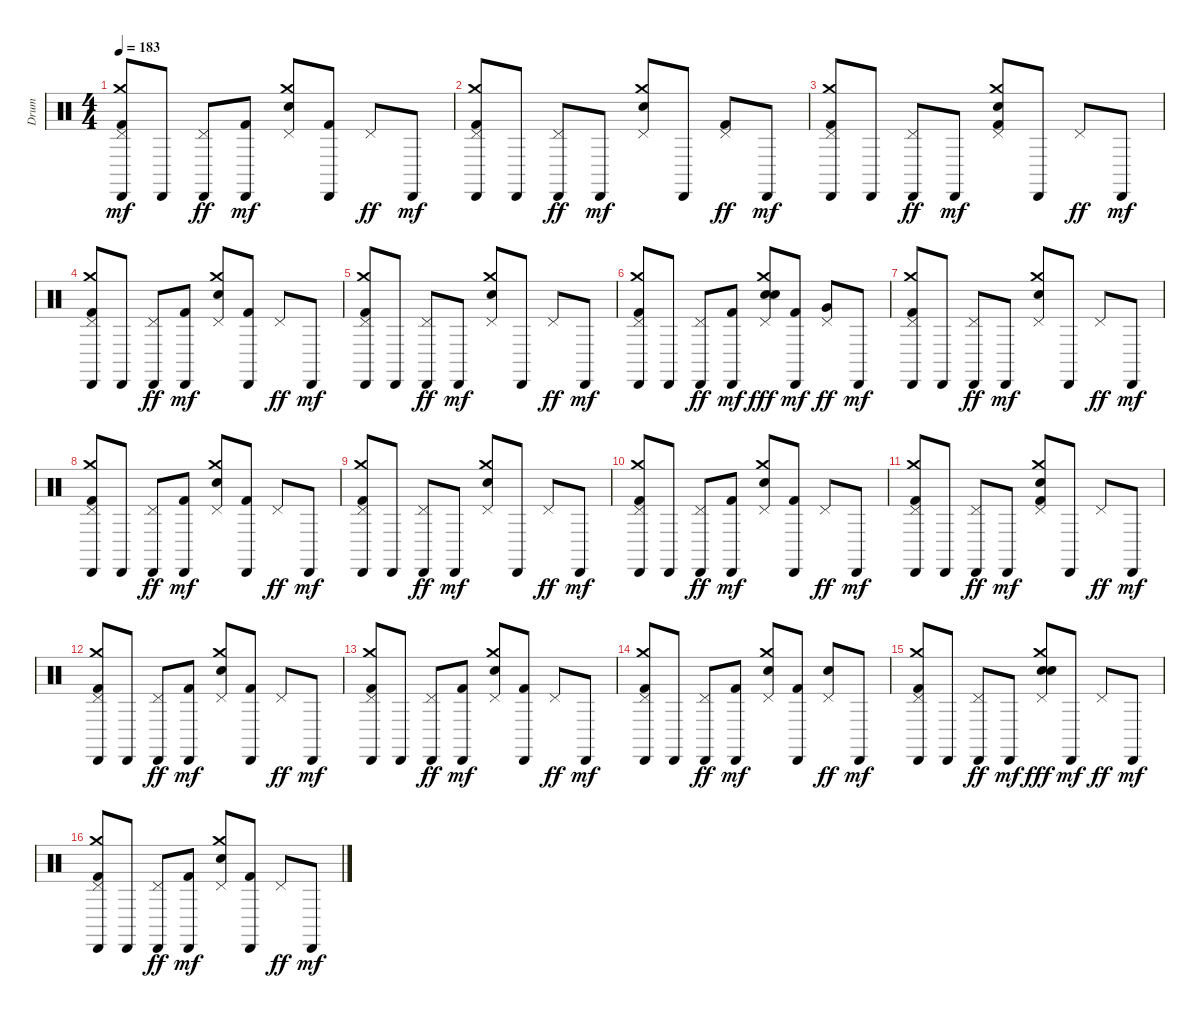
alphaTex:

\track ("Drum" "Drum") {instrument percussion}
\staff {score}
\articulation defaults
\ts (4 4)
\tempo 183
\clef neutral
\ks c
("Cabasa (hit)" "Kick (hit) 2" "Pedal Hi-Hat (hit)" "Crash medium (hit)").8{dy mf} "Cabasa (hit)".8 ("Cabasa (hit)" "Pedal Hi-Hat (hit)").8{dy ff} ("Cabasa (hit)" "Kick (hit) 2").8{dy mf} ("Electric Snare (hit)" "Pedal Hi-Hat (hit)" "Crash medium (hit)").8 ("Cabasa (hit)" "Kick (hit) 2").8 "Pedal Hi-Hat (hit)".8{dy ff} "Cabasa (hit)".8{dy mf} |
("Cabasa (hit)" "Kick (hit) 2" "Pedal Hi-Hat (hit)" "Crash medium (hit)").8 "Cabasa (hit)".8 ("Cabasa (hit)" "Pedal Hi-Hat (hit)").8{dy ff} "Cabasa (hit)".8{dy mf} ("Electric Snare (hit)" "Pedal Hi-Hat (hit)" "Crash medium (hit)").8 "Cabasa (hit)".8 ("Kick (hit) 2" "Pedal Hi-Hat (hit)").8{dy ff} "Cabasa (hit)".8{dy mf} |
("Cabasa (hit)" "Kick (hit) 2" "Pedal Hi-Hat (hit)" "Crash medium (hit)").8 "Cabasa (hit)".8 ("Cabasa (hit)" "Pedal Hi-Hat (hit)").8{dy ff} "Cabasa (hit)".8{dy mf} ("Kick (hit) 2" "Electric Snare (hit)" "Pedal Hi-Hat (hit)" "Crash medium (hit)").8 "Cabasa (hit)".8 "Pedal Hi-Hat (hit)".8{dy ff} "Cabasa (hit)".8{dy mf} |
("Cabasa (hit)" "Kick (hit) 2" "Pedal Hi-Hat (hit)" "Crash medium (hit)").8 "Cabasa (hit)".8 ("Cabasa (hit)" "Pedal Hi-Hat (hit)").8{dy ff} ("Cabasa (hit)" "Kick (hit) 2").8{dy mf} ("Electric Snare (hit)" "Pedal Hi-Hat (hit)" "Crash medium (hit)").8 ("Cabasa (hit)" "Kick (hit) 2").8 "Pedal Hi-Hat (hit)".8{dy ff} "Cabasa (hit)".8{dy mf} |
("Cabasa (hit)" "Kick (hit) 2" "Pedal Hi-Hat (hit)" "Crash medium (hit)").8 "Cabasa (hit)".8 ("Cabasa (hit)" "Pedal Hi-Hat (hit)").8{dy ff} "Cabasa (hit)".8{dy mf} ("Electric Snare (hit)" "Pedal Hi-Hat (hit)" "Crash medium (hit)").8 "Cabasa (hit)".8 "Pedal Hi-Hat (hit)".8{dy ff} "Cabasa (hit)".8{dy mf} |
("Cabasa (hit)" "Kick (hit) 2" "Pedal Hi-Hat (hit)" "Crash medium (hit)").8 "Cabasa (hit)".8 ("Cabasa (hit)" "Pedal Hi-Hat (hit)").8{dy ff} ("Cabasa (hit)" "Kick (hit) 2").8{dy mf} ("Electric Snare (hit)" "Pedal Hi-Hat (hit)" "Crash medium (hit)" "Electric Snare (hit)").8{dy fff} ("Cabasa (hit)" "Kick (hit) 2").8{dy mf} ("Very Low Tom (hit)" "Pedal Hi-Hat (hit)").8{dy ff} "Cabasa (hit)".8{dy mf} |
("Cabasa (hit)" "Kick (hit) 2" "Pedal Hi-Hat (hit)" "Crash medium (hit)").8 "Cabasa (hit)".8 ("Cabasa (hit)" "Pedal Hi-Hat (hit)").8{dy ff} "Cabasa (hit)".8{dy mf} ("Electric Snare (hit)" "Pedal Hi-Hat (hit)" "Crash medium (hit)").8 "Cabasa (hit)".8 "Pedal Hi-Hat (hit)".8{dy ff} "Cabasa (hit)".8{dy mf} |
("Cabasa (hit)" "Kick (hit) 2" "Pedal Hi-Hat (hit)" "Crash medium (hit)").8 "Cabasa (hit)".8 ("Cabasa (hit)" "Pedal Hi-Hat (hit)").8{dy ff} ("Cabasa (hit)" "Kick (hit) 2").8{dy mf} ("Electric Snare (hit)" "Pedal Hi-Hat (hit)" "Crash medium (hit)").8 ("Cabasa (hit)" "Kick (hit) 2").8 "Pedal Hi-Hat (hit)".8{dy ff} "Cabasa (hit)".8{dy mf} |
("Cabasa (hit)" "Kick (hit) 2" "Pedal Hi-Hat (hit)" "Crash medium (hit)").8 "Cabasa (hit)".8 ("Cabasa (hit)" "Pedal Hi-Hat (hit)").8{dy ff} "Cabasa (hit)".8{dy mf} ("Electric Snare (hit)" "Pedal Hi-Hat (hit)" "Crash medium (hit)").8 "Cabasa (hit)".8 "Pedal Hi-Hat (hit)".8{dy ff} "Cabasa (hit)".8{dy mf} |
("Cabasa (hit)" "Kick (hit) 2" "Pedal Hi-Hat (hit)" "Crash medium (hit)").8 "Cabasa (hit)".8 ("Cabasa (hit)" "Pedal Hi-Hat (hit)").8{dy ff} ("Cabasa (hit)" "Kick (hit) 2").8{dy mf} ("Electric Snare (hit)" "Pedal Hi-Hat (hit)" "Crash medium (hit)").8 ("Cabasa (hit)" "Kick (hit) 2").8 "Pedal Hi-Hat (hit)".8{dy ff} "Cabasa (hit)".8{dy mf} |
("Cabasa (hit)" "Kick (hit) 2" "Pedal Hi-Hat (hit)" "Crash medium (hit)").8 "Cabasa (hit)".8 ("Cabasa (hit)" "Pedal Hi-Hat (hit)").8{dy ff} "Cabasa (hit)".8{dy mf} ("Kick (hit) 2" "Electric Snare (hit)" "Pedal Hi-Hat (hit)" "Crash medium (hit)").8 "Cabasa (hit)".8 "Pedal Hi-Hat (hit)".8{dy ff} "Cabasa (hit)".8{dy mf} |
("Cabasa (hit)" "Kick (hit) 2" "Pedal Hi-Hat (hit)" "Crash medium (hit)").8 "Cabasa (hit)".8 ("Cabasa (hit)" "Pedal Hi-Hat (hit)").8{dy ff} ("Cabasa (hit)" "Kick (hit) 2").8{dy mf} ("Electric Snare (hit)" "Pedal Hi-Hat (hit)" "Crash medium (hit)").8 ("Cabasa (hit)" "Kick (hit) 2").8 "Pedal Hi-Hat (hit)".8{dy ff} "Cabasa (hit)".8{dy mf} |
("Cabasa (hit)" "Kick (hit) 2" "Pedal Hi-Hat (hit)" "Crash medium (hit)").8 "Cabasa (hit)".8 ("Cabasa (hit)" "Pedal Hi-Hat (hit)").8{dy ff} ("Cabasa (hit)" "Kick (hit) 2").8{dy mf} ("Electric Snare (hit)" "Pedal Hi-Hat (hit)" "Crash medium (hit)").8 ("Cabasa (hit)" "Kick (hit) 2").8 "Pedal Hi-Hat (hit)".8{dy ff} "Cabasa (hit)".8{dy mf} |
("Cabasa (hit)" "Kick (hit) 2" "Pedal Hi-Hat (hit)" "Crash medium (hit)").8 "Cabasa (hit)".8 ("Cabasa (hit)" "Pedal Hi-Hat (hit)").8{dy ff} ("Cabasa (hit)" "Kick (hit) 2").8{dy mf} ("Electric Snare (hit)" "Pedal Hi-Hat (hit)" "Crash medium (hit)").8 ("Cabasa (hit)" "Kick (hit) 2").8 ("Electric Snare (hit)" "Pedal Hi-Hat (hit)").8{dy ff} "Cabasa (hit)".8{dy mf} |
("Cabasa (hit)" "Kick (hit) 2" "Pedal Hi-Hat (hit)" "Crash medium (hit)").8 "Cabasa (hit)".8 ("Cabasa (hit)" "Pedal Hi-Hat (hit)").8{dy ff} "Cabasa (hit)".8{dy mf} ("Electric Snare (hit)" "Pedal Hi-Hat (hit)" "Crash medium (hit)" "Electric Snare (hit)").8{dy fff} "Cabasa (hit)".8{dy mf} "Pedal Hi-Hat (hit)".8{dy ff} "Cabasa (hit)".8{dy mf} |
("Cabasa (hit)" "Kick (hit) 2" "Pedal Hi-Hat (hit)" "Crash medium (hit)").8 "Cabasa (hit)".8 ("Cabasa (hit)" "Pedal Hi-Hat (hit)").8{dy ff} ("Cabasa (hit)" "Kick (hit) 2").8{dy mf} ("Electric Snare (hit)" "Pedal Hi-Hat (hit)" "Crash medium (hit)").8 ("Cabasa (hit)" "Kick (hit) 2").8 "Pedal Hi-Hat (hit)".8{dy ff} "Cabasa (hit)".8{dy mf}
